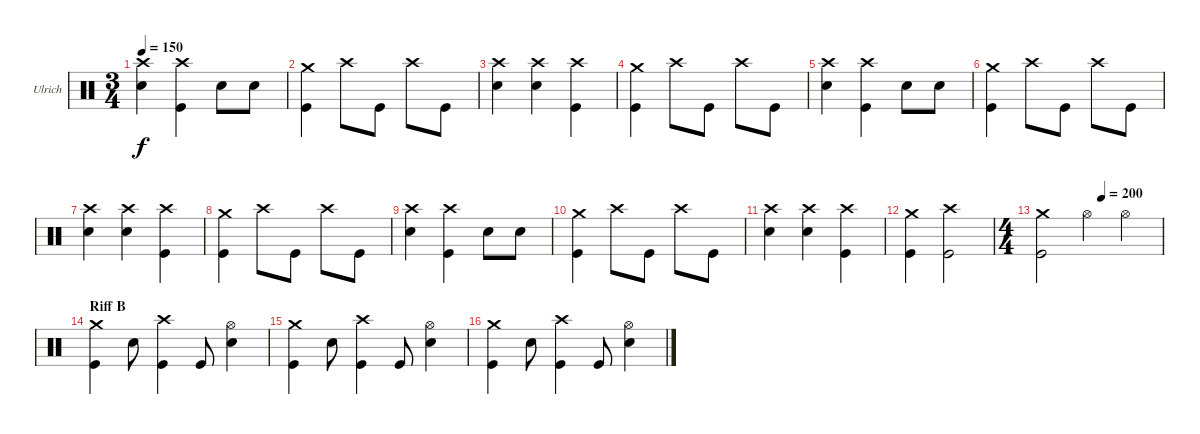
\bracketExtendMode groupsimilarinstruments
\firstSystemTrackNameOrientation horizontal
\otherSystemsTrackNameOrientation horizontal
\track ("Drumkit" "Ulrich") {instrument percussion}
\staff {score}
\articulation defaults
\ts (3 4)
\tempo 150
\clef neutral
\ks c
("Crash high (hit)" "Snare (hit) 2").4{dy f} ("Crash high (hit)" "Kick (hit)").4 "Snare (hit) 2".8 "Snare (hit) 2".8 |
("Crash medium (hit)" "Kick (hit)").4 "Crash high (hit)".8 "Kick (hit)".8 "Crash high (hit)".8 "Kick (hit)".8 |
("Crash high (hit)" "Snare (hit) 2").4 ("Crash high (hit)" "Snare (hit) 2").4 ("Crash high (hit)" "Kick (hit)").4 |
("Crash medium (hit)" "Kick (hit)").4 "Crash high (hit)".8 "Kick (hit)".8 "Crash high (hit)".8 "Kick (hit)".8 |
("Crash high (hit)" "Snare (hit) 2").4 ("Crash high (hit)" "Kick (hit)").4 "Snare (hit) 2".8 "Snare (hit) 2".8 |
("Crash medium (hit)" "Kick (hit)").4 "Crash high (hit)".8 "Kick (hit)".8 "Crash high (hit)".8 "Kick (hit)".8 |
("Crash high (hit)" "Snare (hit) 2").4 ("Crash high (hit)" "Snare (hit) 2").4 ("Crash high (hit)" "Kick (hit)").4 |
("Crash medium (hit)" "Kick (hit)").4 "Crash high (hit)".8 "Kick (hit)".8 "Crash high (hit)".8 "Kick (hit)".8 |
("Crash high (hit)" "Snare (hit) 2").4 ("Crash high (hit)" "Kick (hit)").4 "Snare (hit) 2".8 "Snare (hit) 2".8 |
("Crash medium (hit)" "Kick (hit)").4 "Crash high (hit)".8 "Kick (hit)".8 "Crash high (hit)".8 "Kick (hit)".8 |
("Crash high (hit)" "Snare (hit) 2").4 ("Crash high (hit)" "Snare (hit) 2").4 ("Crash high (hit)" "Kick (hit)").4 |
("Crash medium (hit)" "Kick (hit)").4 ("Crash high (hit)" "Kick (hit)").2 |
\ts (4 4)
\tempo (200 0.5)
("Crash medium (hit)" "Kick (hit)").2 "Hi-Hat (open)".4 "Hi-Hat (open)".4 |
\beaming (8 2 2 2 2)
\section ("" "Riff B")
("Crash medium (hit)" "Kick (hit)").4 "Snare (hit) 2".8 ("Crash high (hit)" "Kick (hit)").4 "Kick (hit)".8 ("Hi-Hat (open)" "Snare (hit) 2").4 |
("Crash medium (hit)" "Kick (hit)").4 "Snare (hit) 2".8 ("Crash high (hit)" "Kick (hit)").4 "Kick (hit)".8 ("Hi-Hat (open)" "Snare (hit) 2").4 |
("Crash medium (hit)" "Kick (hit)").4 "Snare (hit) 2".8 ("Crash high (hit)" "Kick (hit)").4 "Kick (hit)".8 ("Hi-Hat (open)" "Snare (hit) 2").4
